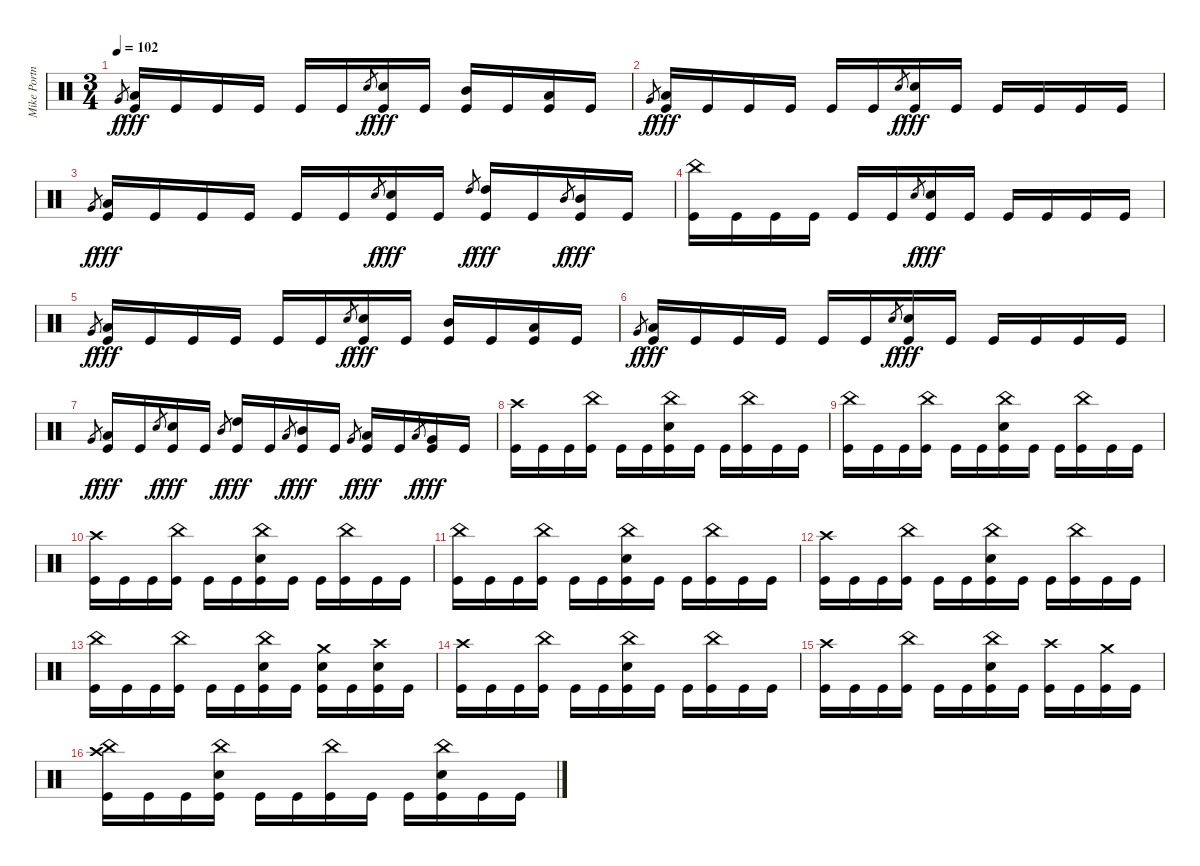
\track ("Mike Portnoy" "Mike Portn") {instrument percussion}
\staff {score}
\articulation defaults
\ts (3 4)
\tempo 102
\clef neutral
\ks c "Very Low Tom (hit)".8{gr dy f}
("Low Tom (hit)" "Kick (hit)").16{dy fff} "Kick (hit)".16 "Kick (hit)".16 "Kick (hit)".16 "Kick (hit)".16 "Kick (hit)".16 "Electric Snare (hit)".8{gr dy f} ("Electric Snare (hit)" "Kick (hit)").16{dy fff} "Kick (hit)".16 ("Mid Tom (hit)" "Kick (hit)").16 "Kick (hit)".16 ("Low Tom (hit)" "Kick (hit)").16 "Kick (hit)".16 |
"Very Low Tom (hit)".8{gr dy f} ("Low Tom (hit)" "Kick (hit)").16{dy fff} "Kick (hit)".16 "Kick (hit)".16 "Kick (hit)".16 "Kick (hit)".16 "Kick (hit)".16 "Electric Snare (hit)".8{gr dy f} ("Electric Snare (hit)" "Kick (hit)").16{dy fff} "Kick (hit)".16 "Kick (hit)".16 "Kick (hit)".16 "Kick (hit)".16 "Kick (hit)".16 |
"Very Low Tom (hit)".8{gr dy f} ("Low Tom (hit)" "Kick (hit)").16{dy fff} "Kick (hit)".16 "Kick (hit)".16 "Kick (hit)".16 "Kick (hit)".16 "Kick (hit)".16 "Electric Snare (hit)".8{gr dy f} ("Electric Snare (hit)" "Kick (hit)").16{dy fff} "Kick (hit)".16 "High Tom (hit)".8{gr dy f} ("High Tom (hit)" "Kick (hit)").16{dy fff} "Kick (hit)".16 "Mid Tom (hit)".8{gr dy f} ("Mid Tom (hit)" "Kick (hit)").16{dy fff} "Kick (hit)".16 |
("China (hit)" "Kick (hit)").16 "Kick (hit)".16 "Kick (hit)".16 "Kick (hit)".16 "Kick (hit)".16 "Kick (hit)".16 "Electric Snare (hit)".8{gr dy f} ("Electric Snare (hit)" "Kick (hit)").16{dy fff} "Kick (hit)".16 "Kick (hit)".16 "Kick (hit)".16 "Kick (hit)".16 "Kick (hit)".16 |
"Very Low Tom (hit)".8{gr dy f} ("Low Tom (hit)" "Kick (hit)").16{dy fff} "Kick (hit)".16 "Kick (hit)".16 "Kick (hit)".16 "Kick (hit)".16 "Kick (hit)".16 "Electric Snare (hit)".8{gr dy f} ("Electric Snare (hit)" "Kick (hit)").16{dy fff} "Kick (hit)".16 ("Mid Tom (hit)" "Kick (hit)").16 "Kick (hit)".16 ("Low Tom (hit)" "Kick (hit)").16 "Kick (hit)".16 |
"Very Low Tom (hit)".8{gr dy f} ("Low Tom (hit)" "Kick (hit)").16{dy fff} "Kick (hit)".16 "Kick (hit)".16 "Kick (hit)".16 "Kick (hit)".16 "Kick (hit)".16 "Electric Snare (hit)".8{gr dy f} ("Electric Snare (hit)" "Kick (hit)").16{dy fff} "Kick (hit)".16 "Kick (hit)".16 "Kick (hit)".16 "Kick (hit)".16 "Kick (hit)".16 |
"Very Low Tom (hit)".8{gr dy f} ("Low Tom (hit)" "Kick (hit)").16{dy fff} "Kick (hit)".16 "Electric Snare (hit)".8{gr dy f} ("Electric Snare (hit)" "Kick (hit)").16{dy fff} "Kick (hit)".16 "Mid Tom (hit)".8{gr dy f} ("High Tom (hit)" "Kick (hit)").16{dy fff} "Kick (hit)".16 "Low Tom (hit)".8{gr dy f} ("Mid Tom (hit)" "Kick (hit)").16{dy fff} "Kick (hit)".16 "Very Low Tom (hit)".8{gr dy f} ("Low Tom (hit)" "Kick (hit)").16{dy fff} "Kick (hit)".16 "Low Floor Tom (hit)".8{gr dy f} ("Very Low Tom (hit)" "Kick (hit)").16{dy fff} "Kick (hit)".16 |
("Crash high (hit)" "Kick (hit)").16 "Kick (hit)".16 "Kick (hit)".16 ("China (hit)" "Kick (hit)").16 "Kick (hit)".16 "Kick (hit)".16 ("China (hit)" "Electric Snare (hit)" "Kick (hit)").16 "Kick (hit)".16 "Kick (hit)".16 ("China (hit)" "Kick (hit)").16 "Kick (hit)".16 "Kick (hit)".16 |
("China (hit)" "Kick (hit)").16 "Kick (hit)".16 "Kick (hit)".16 ("China (hit)" "Kick (hit)").16 "Kick (hit)".16 "Kick (hit)".16 ("China (hit)" "Electric Snare (hit)" "Kick (hit)").16 "Kick (hit)".16 "Kick (hit)".16 ("China (hit)" "Kick (hit)").16 "Kick (hit)".16 "Kick (hit)".16 |
("Crash high (hit)" "Kick (hit)").16 "Kick (hit)".16 "Kick (hit)".16 ("China (hit)" "Kick (hit)").16 "Kick (hit)".16 "Kick (hit)".16 ("China (hit)" "Electric Snare (hit)" "Kick (hit)").16 "Kick (hit)".16 "Kick (hit)".16 ("China (hit)" "Kick (hit)").16 "Kick (hit)".16 "Kick (hit)".16 |
("China (hit)" "Kick (hit)").16 "Kick (hit)".16 "Kick (hit)".16 ("China (hit)" "Kick (hit)").16 "Kick (hit)".16 "Kick (hit)".16 ("China (hit)" "Electric Snare (hit)" "Kick (hit)").16 "Kick (hit)".16 "Kick (hit)".16 ("China (hit)" "Kick (hit)").16 "Kick (hit)".16 "Kick (hit)".16 |
("Crash high (hit)" "Kick (hit)").16 "Kick (hit)".16 "Kick (hit)".16 ("China (hit)" "Kick (hit)").16 "Kick (hit)".16 "Kick (hit)".16 ("China (hit)" "Electric Snare (hit)" "Kick (hit)").16 "Kick (hit)".16 "Kick (hit)".16 ("China (hit)" "Kick (hit)").16 "Kick (hit)".16 "Kick (hit)".16 |
("China (hit)" "Kick (hit)").16 "Kick (hit)".16 "Kick (hit)".16 ("China (hit)" "Kick (hit)").16 "Kick (hit)".16 "Kick (hit)".16 ("China (hit)" "Electric Snare (hit)" "Kick (hit)").16 "Kick (hit)".16 ("Crash medium (hit)" "Electric Snare (hit)" "Kick (hit)").16 "Kick (hit)".16 ("Crash high (hit)" "Electric Snare (hit)" "Kick (hit)").16 "Kick (hit)".16 |
("Crash high (hit)" "Kick (hit)").16 "Kick (hit)".16 "Kick (hit)".16 ("China (hit)" "Kick (hit)").16 "Kick (hit)".16 "Kick (hit)".16 ("China (hit)" "Electric Snare (hit)" "Kick (hit)").16 "Kick (hit)".16 "Kick (hit)".16 ("China (hit)" "Kick (hit)").16 "Kick (hit)".16 "Kick (hit)".16 |
("Crash high (hit)" "Kick (hit)").16 "Kick (hit)".16 "Kick (hit)".16 ("China (hit)" "Kick (hit)").16 "Kick (hit)".16 "Kick (hit)".16 ("China (hit)" "Electric Snare (hit)" "Kick (hit)").16 "Kick (hit)".16 ("Crash high (hit)" "Kick (hit)").16 "Kick (hit)".16 ("Crash medium (hit)" "Kick (hit)").16 "Kick (hit)".16 |
("Crash high (hit)" "China (hit)" "Kick (hit)").16 "Kick (hit)".16 "Kick (hit)".16 ("China (hit)" "Electric Snare (hit)" "Kick (hit)").16 "Kick (hit)".16 "Kick (hit)".16 ("China (hit)" "Kick (hit)").16 "Kick (hit)".16 "Kick (hit)".16 ("China (hit)" "Electric Snare (hit)" "Kick (hit)").16 "Kick (hit)".16 "Kick (hit)".16
